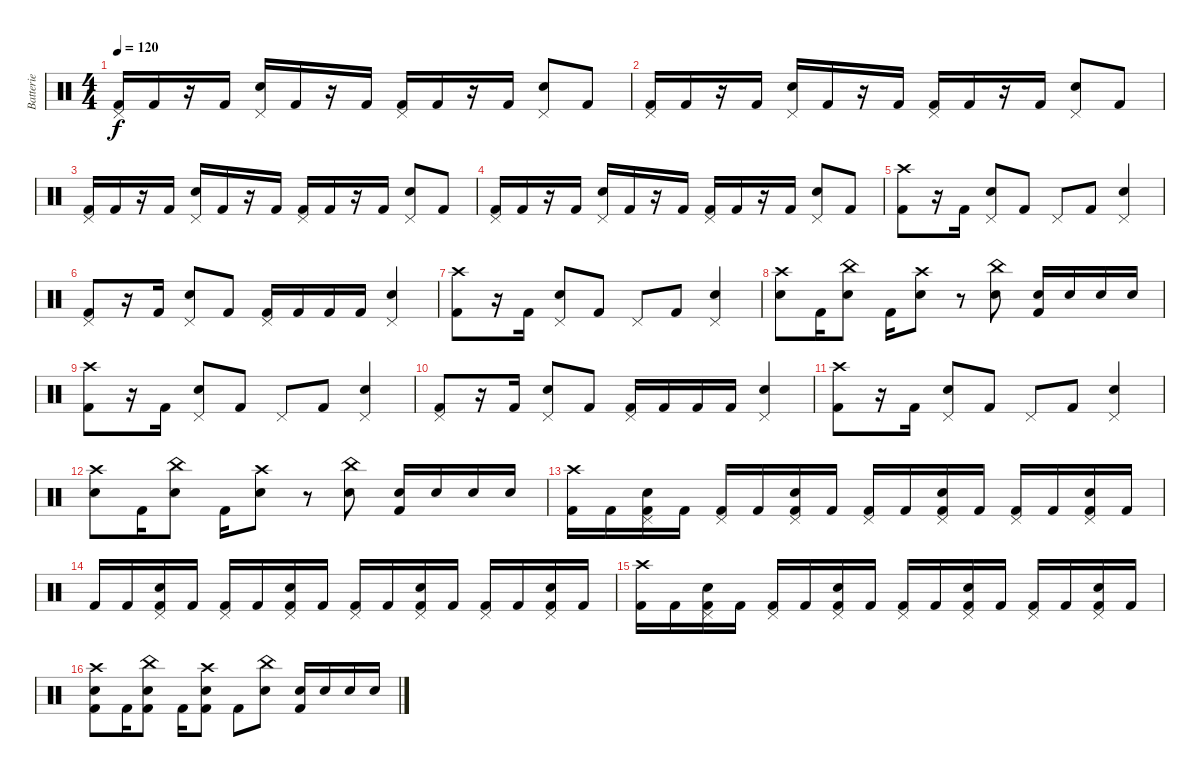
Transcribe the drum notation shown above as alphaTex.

\track ("Batterie" "Batterie") {instrument percussion}
\staff {score}
\articulation defaults
\ts (4 4)
\tempo 120
\clef neutral
\ks c
("Kick (hit) 2" "Pedal Hi-Hat (hit)").16{dy f} "Kick (hit) 2".16 r.16 "Kick (hit) 2".16 ("Snare (hit) 2" "Pedal Hi-Hat (hit)").16 "Kick (hit) 2".16 r.16 "Kick (hit) 2".16 ("Kick (hit) 2" "Pedal Hi-Hat (hit)").16 "Kick (hit) 2".16 r.16 "Kick (hit) 2".16 ("Snare (hit) 2" "Pedal Hi-Hat (hit)").8 "Kick (hit) 2".8 |
("Kick (hit) 2" "Pedal Hi-Hat (hit)").16 "Kick (hit) 2".16 r.16 "Kick (hit) 2".16 ("Snare (hit) 2" "Pedal Hi-Hat (hit)").16 "Kick (hit) 2".16 r.16 "Kick (hit) 2".16 ("Kick (hit) 2" "Pedal Hi-Hat (hit)").16 "Kick (hit) 2".16 r.16 "Kick (hit) 2".16 ("Snare (hit) 2" "Pedal Hi-Hat (hit)").8 "Kick (hit) 2".8 |
("Kick (hit) 2" "Pedal Hi-Hat (hit)").16 "Kick (hit) 2".16 r.16 "Kick (hit) 2".16 ("Snare (hit) 2" "Pedal Hi-Hat (hit)").16 "Kick (hit) 2".16 r.16 "Kick (hit) 2".16 ("Kick (hit) 2" "Pedal Hi-Hat (hit)").16 "Kick (hit) 2".16 r.16 "Kick (hit) 2".16 ("Snare (hit) 2" "Pedal Hi-Hat (hit)").8 "Kick (hit) 2".8 |
("Kick (hit) 2" "Pedal Hi-Hat (hit)").16 "Kick (hit) 2".16 r.16 "Kick (hit) 2".16 ("Snare (hit) 2" "Pedal Hi-Hat (hit)").16 "Kick (hit) 2".16 r.16 "Kick (hit) 2".16 ("Kick (hit) 2" "Pedal Hi-Hat (hit)").16 "Kick (hit) 2".16 r.16 "Kick (hit) 2".16 ("Snare (hit) 2" "Pedal Hi-Hat (hit)").8 "Kick (hit) 2".8 |
("Crash high (hit)" "Kick (hit) 2").8 r.16 "Kick (hit) 2".16 ("Snare (hit) 2" "Pedal Hi-Hat (hit)").8 "Kick (hit) 2".8 "Pedal Hi-Hat (hit)".8 "Kick (hit) 2".8 ("Snare (hit) 2" "Pedal Hi-Hat (hit)").4 |
("Kick (hit) 2" "Pedal Hi-Hat (hit)").8 r.16 "Kick (hit) 2".16 ("Snare (hit) 2" "Pedal Hi-Hat (hit)").8 "Kick (hit) 2".8 ("Kick (hit) 2" "Pedal Hi-Hat (hit)").16 "Kick (hit) 2".16 "Kick (hit) 2".16 "Kick (hit) 2".16 ("Snare (hit) 2" "Pedal Hi-Hat (hit)").4 |
("Crash high (hit)" "Kick (hit) 2").8 r.16 "Kick (hit) 2".16 ("Snare (hit) 2" "Pedal Hi-Hat (hit)").8 "Kick (hit) 2".8 "Pedal Hi-Hat (hit)".8 "Kick (hit) 2".8 ("Snare (hit) 2" "Pedal Hi-Hat (hit)").4 |
("Crash high (hit)" "Snare (hit) 2").8 "Kick (hit) 2".16 ("China (hit)" "Snare (hit) 2").8 "Kick (hit) 2".16 ("Crash high (hit)" "Snare (hit) 2").8 r.8 ("China (hit)" "Snare (hit) 2").8 ("Snare (hit) 2" "Kick (hit) 2").16 "Snare (hit) 2".16 "Snare (hit) 2".16 "Snare (hit) 2".16 |
("Crash high (hit)" "Kick (hit) 2").8 r.16 "Kick (hit) 2".16 ("Snare (hit) 2" "Pedal Hi-Hat (hit)").8 "Kick (hit) 2".8 "Pedal Hi-Hat (hit)".8 "Kick (hit) 2".8 ("Snare (hit) 2" "Pedal Hi-Hat (hit)").4 |
("Kick (hit) 2" "Pedal Hi-Hat (hit)").8 r.16 "Kick (hit) 2".16 ("Snare (hit) 2" "Pedal Hi-Hat (hit)").8 "Kick (hit) 2".8 ("Kick (hit) 2" "Pedal Hi-Hat (hit)").16 "Kick (hit) 2".16 "Kick (hit) 2".16 "Kick (hit) 2".16 ("Snare (hit) 2" "Pedal Hi-Hat (hit)").4 |
("Crash high (hit)" "Kick (hit) 2").8 r.16 "Kick (hit) 2".16 ("Snare (hit) 2" "Pedal Hi-Hat (hit)").8 "Kick (hit) 2".8 "Pedal Hi-Hat (hit)".8 "Kick (hit) 2".8 ("Snare (hit) 2" "Pedal Hi-Hat (hit)").4 |
("Crash high (hit)" "Snare (hit) 2").8 "Kick (hit) 2".16 ("China (hit)" "Snare (hit) 2").8 "Kick (hit) 2".16 ("Crash high (hit)" "Snare (hit) 2").8 r.8 ("China (hit)" "Snare (hit) 2").8 ("Snare (hit) 2" "Kick (hit) 2").16 "Snare (hit) 2".16 "Snare (hit) 2".16 "Snare (hit) 2".16 |
("Crash high (hit)" "Kick (hit) 2").16 "Kick (hit) 2".16 ("Snare (hit) 2" "Kick (hit) 2" "Pedal Hi-Hat (hit)").16 "Kick (hit) 2".16 ("Kick (hit) 2" "Pedal Hi-Hat (hit)").16 "Kick (hit) 2".16 ("Snare (hit) 2" "Kick (hit) 2" "Pedal Hi-Hat (hit)").16 "Kick (hit) 2".16 ("Kick (hit) 2" "Pedal Hi-Hat (hit)").16 "Kick (hit) 2".16 ("Snare (hit) 2" "Kick (hit) 2" "Pedal Hi-Hat (hit)").16 "Kick (hit) 2".16 ("Kick (hit) 2" "Pedal Hi-Hat (hit)").16 "Kick (hit) 2".16 ("Snare (hit) 2" "Kick (hit) 2" "Pedal Hi-Hat (hit)").16 "Kick (hit) 2".16 |
"Kick (hit) 2".16 "Kick (hit) 2".16 ("Snare (hit) 2" "Kick (hit) 2" "Pedal Hi-Hat (hit)").16 "Kick (hit) 2".16 ("Kick (hit) 2" "Pedal Hi-Hat (hit)").16 "Kick (hit) 2".16 ("Snare (hit) 2" "Kick (hit) 2" "Pedal Hi-Hat (hit)").16 "Kick (hit) 2".16 ("Kick (hit) 2" "Pedal Hi-Hat (hit)").16 "Kick (hit) 2".16 ("Snare (hit) 2" "Kick (hit) 2" "Pedal Hi-Hat (hit)").16 "Kick (hit) 2".16 ("Kick (hit) 2" "Pedal Hi-Hat (hit)").16 "Kick (hit) 2".16 ("Snare (hit) 2" "Kick (hit) 2" "Pedal Hi-Hat (hit)").16 "Kick (hit) 2".16 |
("Crash high (hit)" "Kick (hit) 2").16 "Kick (hit) 2".16 ("Snare (hit) 2" "Kick (hit) 2" "Pedal Hi-Hat (hit)").16 "Kick (hit) 2".16 ("Kick (hit) 2" "Pedal Hi-Hat (hit)").16 "Kick (hit) 2".16 ("Snare (hit) 2" "Kick (hit) 2" "Pedal Hi-Hat (hit)").16 "Kick (hit) 2".16 ("Kick (hit) 2" "Pedal Hi-Hat (hit)").16 "Kick (hit) 2".16 ("Snare (hit) 2" "Kick (hit) 2" "Pedal Hi-Hat (hit)").16 "Kick (hit) 2".16 ("Kick (hit) 2" "Pedal Hi-Hat (hit)").16 "Kick (hit) 2".16 ("Snare (hit) 2" "Kick (hit) 2" "Pedal Hi-Hat (hit)").16 "Kick (hit) 2".16 |
("Crash high (hit)" "Snare (hit) 2" "Kick (hit) 2").8 "Kick (hit) 2".16 ("China (hit)" "Snare (hit) 2" "Kick (hit) 2").8 "Kick (hit) 2".16 ("Crash high (hit)" "Snare (hit) 2" "Kick (hit) 2").8 "Kick (hit) 2".8 ("China (hit)" "Snare (hit) 2").8 ("Snare (hit) 2" "Kick (hit) 2").16 "Snare (hit) 2".16 "Snare (hit) 2".16 "Snare (hit) 2".16
